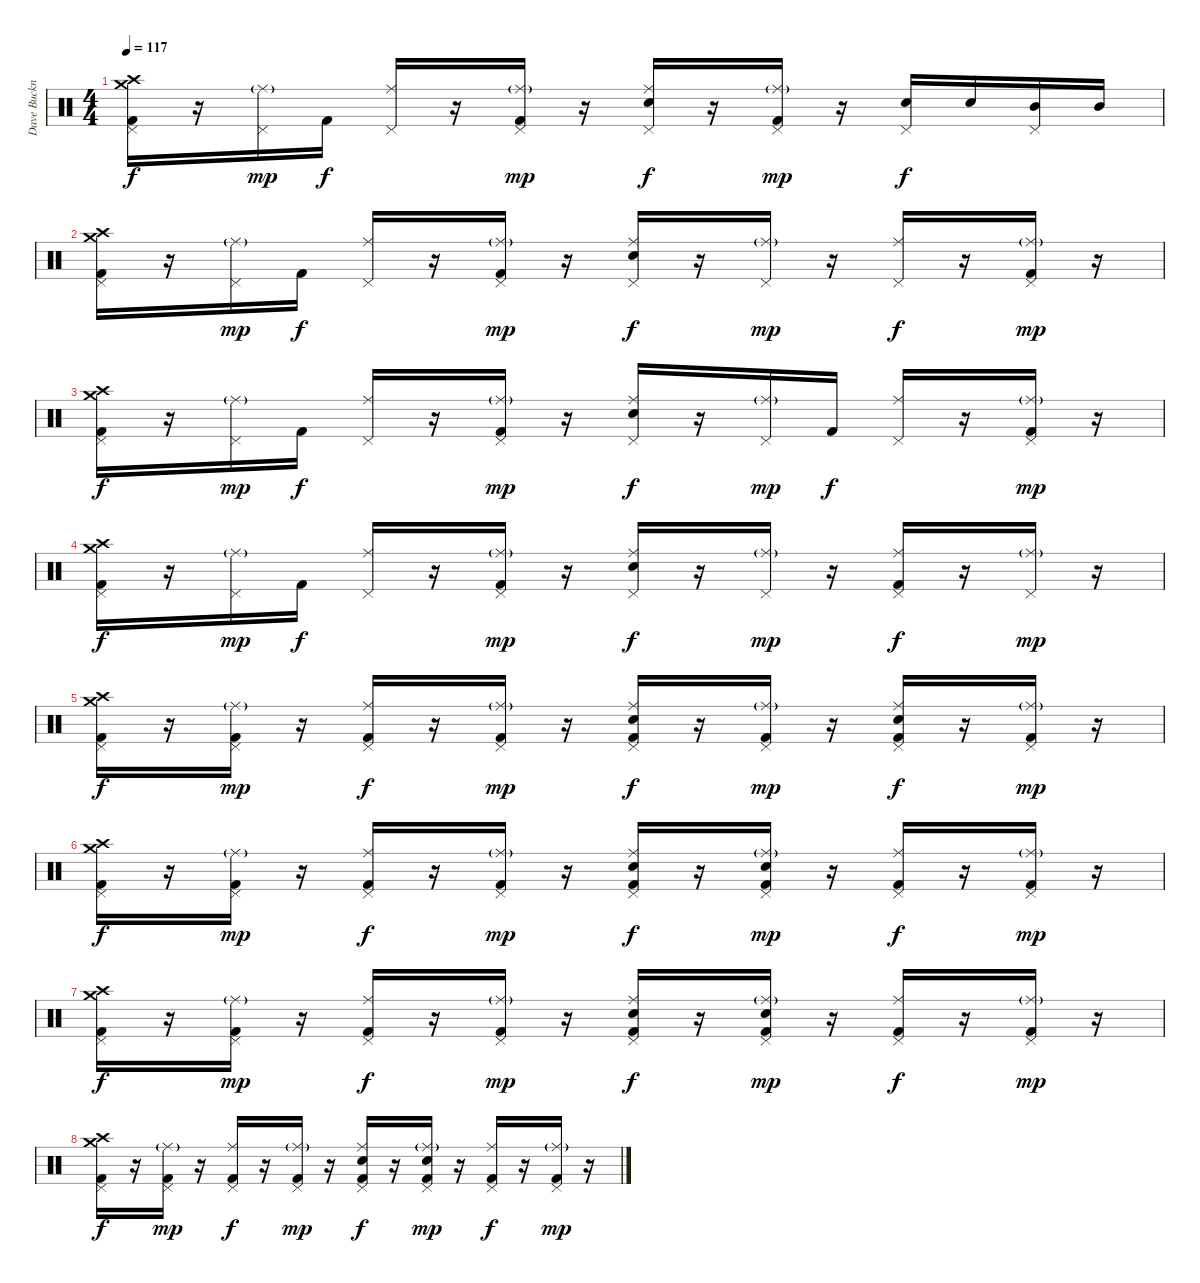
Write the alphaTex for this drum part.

\track ("Dave Buckner RULZ!!! (Drums)" "Dave Buckn") {instrument percussion}
\staff {score}
\articulation defaults
\ts (4 4)
\tempo 117
\clef neutral
\ks c
("Crash high (hit)" "Crash medium (hit)" "Pedal Hi-Hat (hit)" "Kick (hit) 2").16{dy f} r.16 ("Ride (middle)"{g} "Pedal Hi-Hat (hit)").16{dy mp} "Kick (hit) 2".16{dy f} ("Ride (middle)" "Pedal Hi-Hat (hit)").16 r.16 ("Ride (middle)"{g} "Pedal Hi-Hat (hit)" "Kick (hit) 2").16{dy mp} r.16 ("Ride (middle)" "Electric Snare (hit)" "Pedal Hi-Hat (hit)").16{dy f} r.16 ("Ride (middle)"{g} "Pedal Hi-Hat (hit)" "Kick (hit) 2").16{dy mp} r.16 ("Electric Snare (hit)" "Pedal Hi-Hat (hit)").16{dy f} "Electric Snare (hit)".16 ("Mid Tom (hit)" "Pedal Hi-Hat (hit)").16 "Mid Tom (hit)".16 |
("Crash high (hit)" "Crash medium (hit)" "Pedal Hi-Hat (hit)" "Kick (hit) 2").16 r.16 ("Ride (middle)"{g} "Pedal Hi-Hat (hit)").16{dy mp} "Kick (hit) 2".16{dy f} ("Ride (middle)" "Pedal Hi-Hat (hit)").16 r.16 ("Ride (middle)"{g} "Pedal Hi-Hat (hit)" "Kick (hit) 2").16{dy mp} r.16 ("Ride (middle)" "Electric Snare (hit)" "Pedal Hi-Hat (hit)").16{dy f} r.16 ("Ride (middle)"{g} "Pedal Hi-Hat (hit)").16{dy mp} r.16 ("Ride (middle)" "Pedal Hi-Hat (hit)").16{dy f} r.16 ("Ride (middle)"{g} "Pedal Hi-Hat (hit)" "Kick (hit) 2").16{dy mp} r.16 |
("Crash high (hit)" "Crash medium (hit)" "Pedal Hi-Hat (hit)" "Kick (hit) 2").16{dy f} r.16 ("Ride (middle)"{g} "Pedal Hi-Hat (hit)").16{dy mp} "Kick (hit) 2".16{dy f} ("Ride (middle)" "Pedal Hi-Hat (hit)").16 r.16 ("Ride (middle)"{g} "Pedal Hi-Hat (hit)" "Kick (hit) 2").16{dy mp} r.16 ("Ride (middle)" "Electric Snare (hit)" "Pedal Hi-Hat (hit)").16{dy f} r.16 ("Ride (middle)"{g} "Pedal Hi-Hat (hit)").16{dy mp} "Kick (hit) 2".16{dy f} ("Ride (middle)" "Pedal Hi-Hat (hit)").16 r.16 ("Ride (middle)"{g} "Pedal Hi-Hat (hit)" "Kick (hit) 2").16{dy mp} r.16 |
("Crash high (hit)" "Crash medium (hit)" "Pedal Hi-Hat (hit)" "Kick (hit) 2").16{dy f} r.16 ("Ride (middle)"{g} "Pedal Hi-Hat (hit)").16{dy mp} "Kick (hit) 2".16{dy f} ("Ride (middle)" "Pedal Hi-Hat (hit)").16 r.16 ("Ride (middle)"{g} "Pedal Hi-Hat (hit)" "Kick (hit) 2").16{dy mp} r.16 ("Ride (middle)" "Electric Snare (hit)" "Pedal Hi-Hat (hit)").16{dy f} r.16 ("Ride (middle)"{g} "Pedal Hi-Hat (hit)").16{dy mp} r.16 ("Ride (middle)" "Pedal Hi-Hat (hit)" "Kick (hit) 2").16{dy f} r.16 ("Ride (middle)"{g} "Pedal Hi-Hat (hit)").16{dy mp} r.16 |
("Crash high (hit)" "Crash medium (hit)" "Pedal Hi-Hat (hit)" "Kick (hit) 2").16{dy f} r.16 ("Ride (middle)"{g} "Pedal Hi-Hat (hit)" "Kick (hit) 2").16{dy mp} r.16 ("Ride (middle)" "Pedal Hi-Hat (hit)" "Kick (hit) 2").16{dy f} r.16 ("Ride (middle)"{g} "Pedal Hi-Hat (hit)" "Kick (hit) 2").16{dy mp} r.16 ("Ride (middle)" "Electric Snare (hit)" "Pedal Hi-Hat (hit)" "Kick (hit) 2").16{dy f} r.16 ("Ride (middle)"{g} "Pedal Hi-Hat (hit)" "Kick (hit) 2").16{dy mp} r.16 ("Ride (middle)" "Electric Snare (hit)" "Pedal Hi-Hat (hit)" "Kick (hit) 2").16{dy f} r.16 ("Ride (middle)"{g} "Pedal Hi-Hat (hit)" "Kick (hit) 2").16{dy mp} r.16 |
("Crash high (hit)" "Crash medium (hit)" "Pedal Hi-Hat (hit)" "Kick (hit) 2").16{dy f} r.16 ("Ride (middle)"{g} "Pedal Hi-Hat (hit)" "Kick (hit) 2").16{dy mp} r.16 ("Ride (middle)" "Pedal Hi-Hat (hit)" "Kick (hit) 2").16{dy f} r.16 ("Ride (middle)"{g} "Pedal Hi-Hat (hit)" "Kick (hit) 2").16{dy mp} r.16 ("Ride (middle)" "Electric Snare (hit)" "Pedal Hi-Hat (hit)" "Kick (hit) 2").16{dy f} r.16 ("Ride (middle)"{g} "Electric Snare (hit)" "Pedal Hi-Hat (hit)" "Kick (hit) 2").16{dy mp} r.16 ("Ride (middle)" "Pedal Hi-Hat (hit)" "Kick (hit) 2").16{dy f} r.16 ("Ride (middle)"{g} "Pedal Hi-Hat (hit)" "Kick (hit) 2").16{dy mp} r.16 |
("Crash high (hit)" "Crash medium (hit)" "Pedal Hi-Hat (hit)" "Kick (hit) 2").16{dy f} r.16 ("Ride (middle)"{g} "Pedal Hi-Hat (hit)" "Kick (hit) 2").16{dy mp} r.16 ("Ride (middle)" "Pedal Hi-Hat (hit)" "Kick (hit) 2").16{dy f} r.16 ("Ride (middle)"{g} "Pedal Hi-Hat (hit)" "Kick (hit) 2").16{dy mp} r.16 ("Ride (middle)" "Electric Snare (hit)" "Pedal Hi-Hat (hit)" "Kick (hit) 2").16{dy f} r.16 ("Ride (middle)"{g} "Electric Snare (hit)" "Pedal Hi-Hat (hit)" "Kick (hit) 2").16{dy mp} r.16 ("Ride (middle)" "Pedal Hi-Hat (hit)" "Kick (hit) 2").16{dy f} r.16 ("Ride (middle)"{g} "Pedal Hi-Hat (hit)" "Kick (hit) 2").16{dy mp} r.16 |
("Crash high (hit)" "Crash medium (hit)" "Pedal Hi-Hat (hit)" "Kick (hit) 2").16{dy f} r.16 ("Ride (middle)"{g} "Pedal Hi-Hat (hit)" "Kick (hit) 2").16{dy mp} r.16 ("Ride (middle)" "Pedal Hi-Hat (hit)" "Kick (hit) 2").16{dy f} r.16 ("Ride (middle)"{g} "Pedal Hi-Hat (hit)" "Kick (hit) 2").16{dy mp} r.16 ("Ride (middle)" "Electric Snare (hit)" "Pedal Hi-Hat (hit)" "Kick (hit) 2").16{dy f} r.16 ("Ride (middle)"{g} "Electric Snare (hit)" "Pedal Hi-Hat (hit)" "Kick (hit) 2").16{dy mp} r.16 ("Ride (middle)" "Pedal Hi-Hat (hit)" "Kick (hit) 2").16{dy f} r.16 ("Ride (middle)"{g} "Pedal Hi-Hat (hit)" "Kick (hit) 2").16{dy mp} r.16
